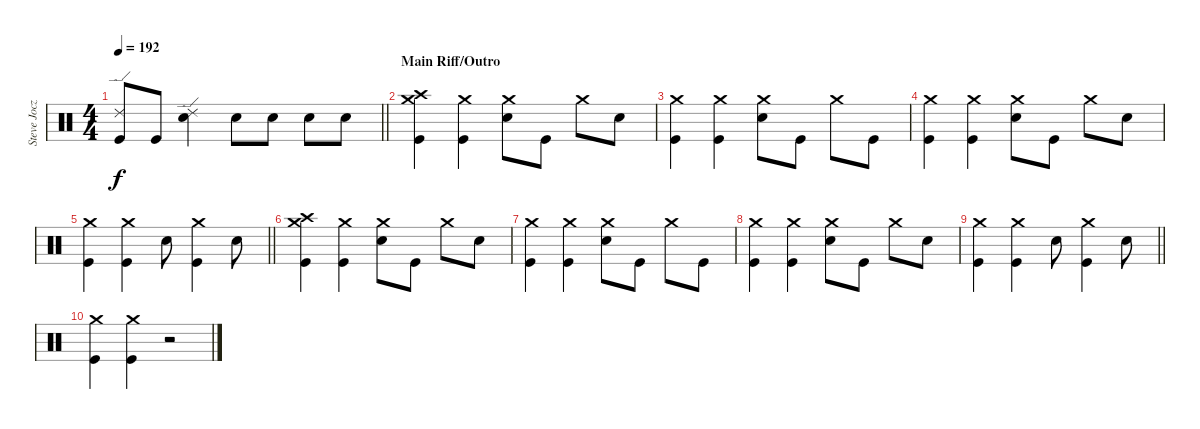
\track ("Steve Jocz" "Steve Jocz") {instrument percussion}
\staff {score}
\articulation defaults
\ts (4 4)
\tempo 192
\clef neutral
\barLineRight lightlight
\ks c
("Ride (edge) 2" "Kick (hit)").8{dy f} "Kick (hit)".8 ("Ride (edge) 2" "Electric Snare (hit)").4 "Electric Snare (hit)".8 "Electric Snare (hit)".8 "Electric Snare (hit)".8 "Electric Snare (hit)".8 |
\section ("" "Main Riff/Outro")
("Crash medium (hit)" "Crash high (hit)" "Kick (hit)").4 ("Crash medium (hit)" "Kick (hit)").4 ("Crash medium (hit)" "Electric Snare (hit)").8 "Kick (hit)".8 "Crash medium (hit)".8 "Electric Snare (hit)".8 |
("Crash medium (hit)" "Kick (hit)").4 ("Crash medium (hit)" "Kick (hit)").4 ("Crash medium (hit)" "Electric Snare (hit)").8 "Kick (hit)".8 "Crash medium (hit)".8 "Kick (hit)".8 |
("Crash medium (hit)" "Kick (hit)").4 ("Crash medium (hit)" "Kick (hit)").4 ("Crash medium (hit)" "Electric Snare (hit)").8 "Kick (hit)".8 "Crash medium (hit)".8 "Electric Snare (hit)".8 |
\barLineRight lightlight
("Crash medium (hit)" "Kick (hit)").4 ("Crash medium (hit)" "Kick (hit)").4 "Electric Snare (hit)".8 ("Crash medium (hit)" "Kick (hit)").4 "Electric Snare (hit)".8 |
("Crash medium (hit)" "Crash high (hit)" "Kick (hit)").4 ("Crash medium (hit)" "Kick (hit)").4 ("Crash medium (hit)" "Electric Snare (hit)").8 "Kick (hit)".8 "Crash medium (hit)".8 "Electric Snare (hit)".8 |
("Crash medium (hit)" "Kick (hit)").4 ("Crash medium (hit)" "Kick (hit)").4 ("Crash medium (hit)" "Electric Snare (hit)").8 "Kick (hit)".8 "Crash medium (hit)".8 "Kick (hit)".8 |
("Crash medium (hit)" "Kick (hit)").4 ("Crash medium (hit)" "Kick (hit)").4 ("Crash medium (hit)" "Electric Snare (hit)").8 "Kick (hit)".8 "Crash medium (hit)".8 "Electric Snare (hit)".8 |
\barLineRight lightlight
("Crash medium (hit)" "Kick (hit)").4 ("Crash medium (hit)" "Kick (hit)").4 "Electric Snare (hit)".8 ("Crash medium (hit)" "Kick (hit)").4 "Electric Snare (hit)".8 |
("Crash medium (hit)" "Kick (hit)").4 ("Crash medium (hit)" "Kick (hit)").4 r.2
